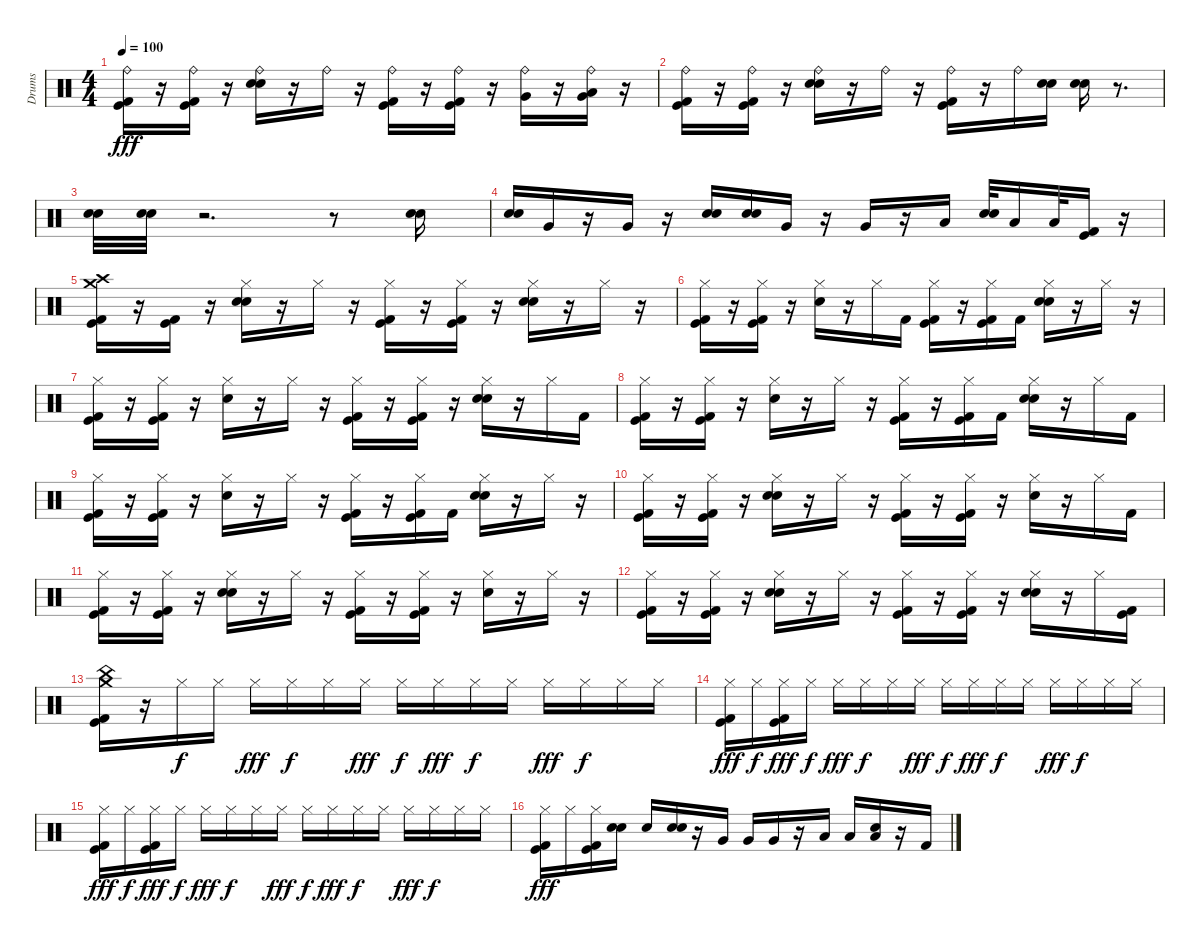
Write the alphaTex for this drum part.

\track ("Drums" "Drums") {instrument percussion}
\staff {score}
\articulation defaults
\ts (4 4)
\tempo 100
\clef neutral
\ks c
("Ride (bell)" "Kick (hit) 2" "Kick (hit)").16{dy fff} r.16 ("Kick (hit)" "Ride (bell)" "Kick (hit) 2").16 r.16 ("Ride (bell)" "Electric Snare (hit)" "Snare (hit) 2").16 r.16 "Ride (bell)".16 r.16 ("Kick (hit) 2" "Ride (bell)" "Kick (hit)").16 r.16 ("Ride (bell)" "Kick (hit)" "Kick (hit) 2").16 r.16 ("Very Low Tom (hit)" "Ride (bell)").16 r.16 ("Ride (bell)" "Very Low Tom (hit)" "Low Floor Tom (hit)").16 r.16 |
("Kick (hit)" "Kick (hit) 2" "Ride (bell)").16 r.16 ("Ride (bell)" "Kick (hit)" "Kick (hit) 2").16 r.16 ("Ride (bell)" "Electric Snare (hit)" "Snare (hit) 2").16 r.16 "Ride (bell)".16 r.16 ("Kick (hit) 2" "Ride (bell)" "Kick (hit)").16 r.16 "Ride (bell)".16 ("Snare (hit) 2" "Electric Snare (hit)").16 ("Electric Snare (hit)" "Snare (hit) 2").16 r.8{d} |
("Snare (hit) 2" "Electric Snare (hit)").32 ("Electric Snare (hit)" "Snare (hit) 2").32 r.2{d} r.8 ("Snare (hit) 2" "Electric Snare (hit)").16 |
("Electric Snare (hit)" "Snare (hit) 2").16 "Very Low Tom (hit)".16 r.16 "Very Low Tom (hit)".16 r.16 ("Snare (hit) 2" "Electric Snare (hit)").16 ("Snare (hit) 2" "Electric Snare (hit)").16 "Very Low Tom (hit)".16 r.16 "Very Low Tom (hit)".16 r.16 "Low Tom (hit)".16 ("Electric Snare (hit)" "Snare (hit) 2").32 "Low Tom (hit)".16 "Low Floor Tom (hit)".32 ("Kick (hit)" "Kick (hit) 2").16 r.16 |
("Crash medium (hit)" "Crash high (hit)" "Kick (hit)" "Kick (hit) 2").16 r.16 ("Kick (hit) 2" "Kick (hit)").16 r.16 ("Snare (hit) 2" "Hi-Hat (closed)" "Electric Snare (hit)").16 r.16 "Hi-Hat (closed)".16 r.16 ("Kick (hit)" "Hi-Hat (closed)" "Kick (hit) 2").16 r.16 ("Kick (hit) 2" "Hi-Hat (closed)" "Kick (hit)").16 r.16 ("Electric Snare (hit)" "Snare (hit) 2" "Hi-Hat (closed)").16 r.16 "Hi-Hat (closed)".16 r.16 |
("Hi-Hat (closed)" "Kick (hit) 2" "Kick (hit)").16 r.16 ("Hi-Hat (closed)" "Kick (hit)" "Kick (hit) 2").16 r.16 ("Electric Snare (hit)" "Hi-Hat (closed)").16 r.16 "Hi-Hat (closed)".16 "Kick (hit) 2".16 ("Kick (hit) 2" "Kick (hit)" "Hi-Hat (closed)").16 r.16 ("Kick (hit) 2" "Hi-Hat (closed)" "Kick (hit)").16 "Kick (hit) 2".16 ("Hi-Hat (closed)" "Snare (hit) 2" "Electric Snare (hit)").16 r.16 "Hi-Hat (closed)".16 r.16 |
("Kick (hit)" "Kick (hit) 2" "Hi-Hat (closed)").16 r.16 ("Kick (hit) 2" "Hi-Hat (closed)" "Kick (hit)").16 r.16 ("Hi-Hat (closed)" "Electric Snare (hit)").16 r.16 "Hi-Hat (closed)".16 r.16 ("Hi-Hat (closed)" "Kick (hit)" "Kick (hit) 2").16 r.16 ("Kick (hit)" "Hi-Hat (closed)" "Kick (hit) 2").16 r.16 ("Hi-Hat (closed)" "Snare (hit) 2" "Electric Snare (hit)").16 r.16 "Hi-Hat (closed)".16 "Kick (hit) 2".16 |
("Kick (hit) 2" "Kick (hit)" "Hi-Hat (closed)").16 r.16 ("Hi-Hat (closed)" "Kick (hit) 2" "Kick (hit)").16 r.16 ("Hi-Hat (closed)" "Electric Snare (hit)").16 r.16 "Hi-Hat (closed)".16 r.16 ("Kick (hit)" "Kick (hit) 2" "Hi-Hat (closed)").16 r.16 ("Hi-Hat (closed)" "Kick (hit) 2" "Kick (hit)").16 "Kick (hit) 2".16 ("Electric Snare (hit)" "Hi-Hat (closed)" "Snare (hit) 2").16 r.16 "Hi-Hat (closed)".16 "Kick (hit) 2".16 |
("Kick (hit)" "Hi-Hat (closed)" "Kick (hit) 2").16 r.16 ("Kick (hit) 2" "Hi-Hat (closed)" "Kick (hit)").16 r.16 ("Electric Snare (hit)" "Hi-Hat (closed)").16 r.16 "Hi-Hat (closed)".16 r.16 ("Kick (hit) 2" "Kick (hit)" "Hi-Hat (closed)").16 r.16 ("Hi-Hat (closed)" "Kick (hit)" "Kick (hit) 2").16 "Kick (hit) 2".16 ("Electric Snare (hit)" "Hi-Hat (closed)" "Snare (hit) 2").16 r.16 "Hi-Hat (closed)".16 r.16 |
("Kick (hit) 2" "Kick (hit)" "Hi-Hat (closed)").16 r.16 ("Kick (hit)" "Kick (hit) 2" "Hi-Hat (closed)").16 r.16 ("Snare (hit) 2" "Electric Snare (hit)" "Hi-Hat (closed)").16 r.16 "Hi-Hat (closed)".16 r.16 ("Kick (hit) 2" "Kick (hit)" "Hi-Hat (closed)").16 r.16 ("Kick (hit) 2" "Hi-Hat (closed)" "Kick (hit)").16 r.16 ("Hi-Hat (closed)" "Electric Snare (hit)").16 r.16 "Hi-Hat (closed)".16 "Kick (hit) 2".16 |
("Kick (hit)" "Kick (hit) 2" "Hi-Hat (closed)").16 r.16 ("Kick (hit) 2" "Hi-Hat (closed)" "Kick (hit)").16 r.16 ("Snare (hit) 2" "Electric Snare (hit)" "Hi-Hat (closed)").16 r.16 "Hi-Hat (closed)".16 r.16 ("Kick (hit) 2" "Kick (hit)" "Hi-Hat (closed)").16 r.16 ("Kick (hit) 2" "Kick (hit)" "Hi-Hat (closed)").16 r.16 ("Electric Snare (hit)" "Hi-Hat (closed)").16 r.16 "Hi-Hat (closed)".16 r.16 |
("Kick (hit)" "Hi-Hat (closed)" "Kick (hit) 2").16 r.16 ("Kick (hit) 2" "Kick (hit)" "Hi-Hat (closed)").16 r.16 ("Snare (hit) 2" "Electric Snare (hit)" "Hi-Hat (closed)").16 r.16 "Hi-Hat (closed)".16 r.16 ("Kick (hit) 2" "Kick (hit)" "Hi-Hat (closed)").16 r.16 ("Kick (hit) 2" "Hi-Hat (closed)" "Kick (hit)").16 r.16 ("Snare (hit) 2" "Hi-Hat (closed)" "Electric Snare (hit)").16 r.16 "Hi-Hat (closed)".16 ("Kick (hit)" "Kick (hit) 2").16 |
("Kick (hit)" "Kick (hit) 2" "China (hit)" "Crash medium (hit)").16 r.16 "Hi-Hat (closed)".16{dy f} "Hi-Hat (closed)".16 "Hi-Hat (closed)".16{dy fff} "Hi-Hat (closed)".16{dy f} "Hi-Hat (closed)".16 "Hi-Hat (closed)".16{dy fff} "Hi-Hat (closed)".16{dy f} "Hi-Hat (closed)".16{dy fff} "Hi-Hat (closed)".16{dy f} "Hi-Hat (closed)".16 "Hi-Hat (closed)".16{dy fff} "Hi-Hat (closed)".16{dy f} "Hi-Hat (closed)".16 "Hi-Hat (closed)".16 |
("Hi-Hat (closed)" "Kick (hit)" "Kick (hit) 2").16{dy fff} "Hi-Hat (closed)".16{dy f} ("Hi-Hat (closed)" "Kick (hit)" "Kick (hit) 2").16{dy fff} "Hi-Hat (closed)".16{dy f} "Hi-Hat (closed)".16{dy fff} "Hi-Hat (closed)".16{dy f} "Hi-Hat (closed)".16 "Hi-Hat (closed)".16{dy fff} "Hi-Hat (closed)".16{dy f} "Hi-Hat (closed)".16{dy fff} "Hi-Hat (closed)".16{dy f} "Hi-Hat (closed)".16 "Hi-Hat (closed)".16{dy fff} "Hi-Hat (closed)".16{dy f} "Hi-Hat (closed)".16 "Hi-Hat (closed)".16 |
("Kick (hit)" "Hi-Hat (closed)" "Kick (hit) 2").16{dy fff} "Hi-Hat (closed)".16{dy f} ("Hi-Hat (closed)" "Kick (hit) 2" "Kick (hit)").16{dy fff} "Hi-Hat (closed)".16{dy f} "Hi-Hat (closed)".16{dy fff} "Hi-Hat (closed)".16{dy f} "Hi-Hat (closed)".16 "Hi-Hat (closed)".16{dy fff} "Hi-Hat (closed)".16{dy f} "Hi-Hat (closed)".16{dy fff} "Hi-Hat (closed)".16{dy f} "Hi-Hat (closed)".16 "Hi-Hat (closed)".16{dy fff} "Hi-Hat (closed)".16{dy f} "Hi-Hat (closed)".16 "Hi-Hat (closed)".16 |
("Hi-Hat (closed)" "Kick (hit) 2" "Kick (hit)").16{dy fff} "Hi-Hat (closed)".16 ("Kick (hit) 2" "Kick (hit)" "Hi-Hat (closed)").16 ("Electric Snare (hit)" "Snare (hit) 2").16 "Electric Snare (hit)".16 ("Electric Snare (hit)" "Snare (hit) 2").16 r.16 "Very Low Tom (hit)".16 "Very Low Tom (hit)".16 "Very Low Tom (hit)".16 r.16 "Low Floor Tom (hit)".16 "Low Floor Tom (hit)".16 ("Low Floor Tom (hit)" "Snare (hit) 2").16 r.16 "Kick (hit) 2".16
